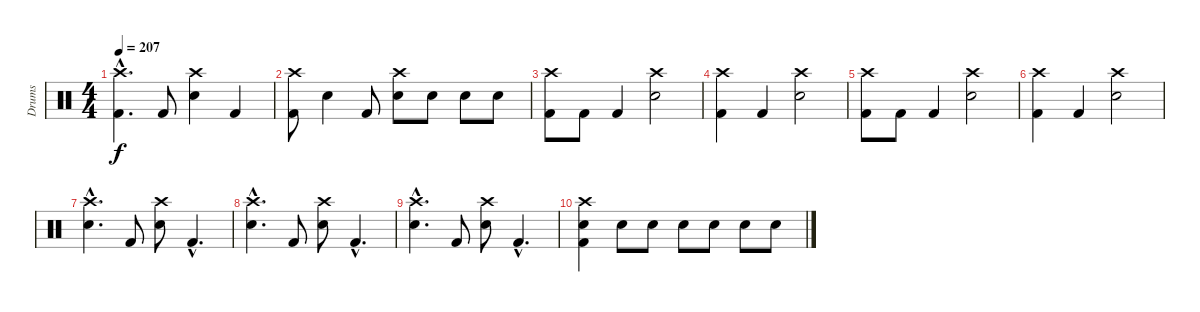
\track ("Drums" "Drums") {instrument percussion}
\staff {score}
\articulation defaults
\ts (4 4)
\tempo 207
\clef neutral
\ks c
("Crash high (hit)"{hac} "Kick (hit) 2"{hac}).4{d dy f} "Kick (hit) 2".8 ("Crash high (hit)" "Electric Snare (hit)").4 "Kick (hit) 2".4 |
("Crash high (hit)" "Kick (hit) 2").8 "Electric Snare (hit)".4 "Kick (hit) 2".8 ("Crash high (hit)" "Electric Snare (hit)").8 "Electric Snare (hit)".8 "Electric Snare (hit)".8 "Electric Snare (hit)".8 |
("Crash high (hit)" "Kick (hit) 2").8 "Kick (hit) 2".8 "Kick (hit) 2".4 ("Crash high (hit)" "Electric Snare (hit)").2 |
("Crash high (hit)" "Kick (hit) 2").4 "Kick (hit) 2".4 ("Crash high (hit)" "Electric Snare (hit)").2 |
("Crash high (hit)" "Kick (hit) 2").8 "Kick (hit) 2".8 "Kick (hit) 2".4 ("Crash high (hit)" "Electric Snare (hit)").2 |
("Crash high (hit)" "Kick (hit) 2").4 "Kick (hit) 2".4 ("Crash high (hit)" "Electric Snare (hit)").2 |
("Crash high (hit)"{hac} "Electric Snare (hit)"{hac}).4{d} "Kick (hit) 2".8 ("Crash high (hit)" "Electric Snare (hit)").8 "Kick (hit) 2"{hac}.4{d} |
("Crash high (hit)"{hac} "Electric Snare (hit)"{hac}).4{d} "Kick (hit) 2".8 ("Crash high (hit)" "Electric Snare (hit)").8 "Kick (hit) 2"{hac}.4{d} |
("Crash high (hit)"{hac} "Electric Snare (hit)"{hac}).4{d} "Kick (hit) 2".8 ("Crash high (hit)" "Electric Snare (hit)").8 "Kick (hit) 2"{hac}.4{d} |
("Crash high (hit)" "Electric Snare (hit)" "Kick (hit) 2").4 "Electric Snare (hit)".8 "Electric Snare (hit)".8 "Electric Snare (hit)".8 "Electric Snare (hit)".8 "Electric Snare (hit)".8 "Electric Snare (hit)".8
